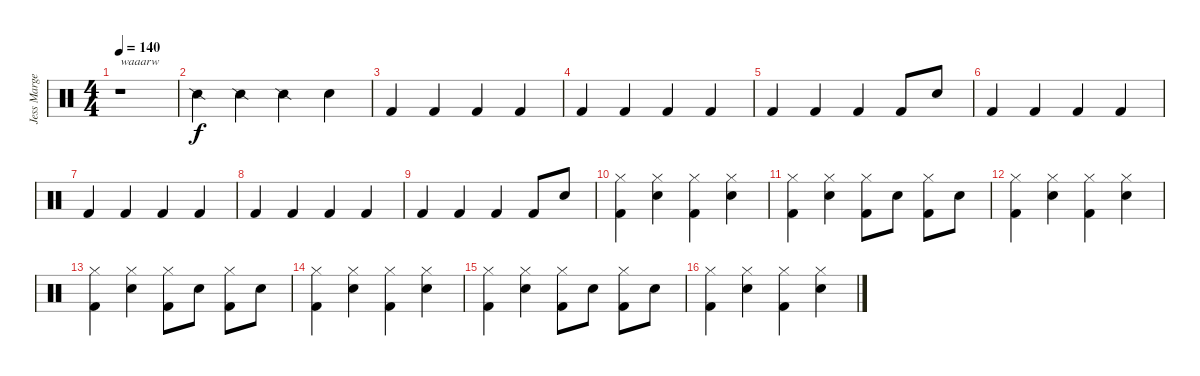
\track ("Jess Margera" "Jess Marge") {instrument percussion}
\staff {score}
\articulation defaults
\ts (4 4)
\tempo 140
\clef neutral
\ks c
r.1{txt "waaarw" dy f} |
"Snare (side stick) 2".4 "Snare (side stick) 2".4 "Snare (side stick) 2".4 "Electric Snare (hit)".4 |
"Kick (hit) 2".4 "Kick (hit) 2".4 "Kick (hit) 2".4 "Kick (hit) 2".4 |
"Kick (hit) 2".4 "Kick (hit) 2".4 "Kick (hit) 2".4 "Kick (hit) 2".4 |
"Kick (hit) 2".4 "Kick (hit) 2".4 "Kick (hit) 2".4 "Kick (hit) 2".8 "Electric Snare (hit)".8 |
"Kick (hit) 2".4 "Kick (hit) 2".4 "Kick (hit) 2".4 "Kick (hit) 2".4 |
"Kick (hit) 2".4 "Kick (hit) 2".4 "Kick (hit) 2".4 "Kick (hit) 2".4 |
"Kick (hit) 2".4 "Kick (hit) 2".4 "Kick (hit) 2".4 "Kick (hit) 2".4 |
"Kick (hit) 2".4 "Kick (hit) 2".4 "Kick (hit) 2".4 "Kick (hit) 2".8 "Electric Snare (hit)".8 |
("Hi-Hat (closed)" "Kick (hit) 2").4 ("Hi-Hat (closed)" "Electric Snare (hit)").4 ("Hi-Hat (closed)" "Kick (hit) 2").4 ("Hi-Hat (closed)" "Electric Snare (hit)").4 |
("Hi-Hat (closed)" "Kick (hit) 2").4 ("Hi-Hat (closed)" "Electric Snare (hit)").4 ("Hi-Hat (closed)" "Kick (hit) 2").8 "Electric Snare (hit)".8 ("Hi-Hat (closed)" "Kick (hit) 2").8 "Electric Snare (hit)".8 |
("Hi-Hat (closed)" "Kick (hit) 2").4 ("Hi-Hat (closed)" "Electric Snare (hit)").4 ("Hi-Hat (closed)" "Kick (hit) 2").4 ("Hi-Hat (closed)" "Electric Snare (hit)").4 |
("Hi-Hat (closed)" "Kick (hit) 2").4 ("Hi-Hat (closed)" "Electric Snare (hit)").4 ("Hi-Hat (closed)" "Kick (hit) 2").8 "Electric Snare (hit)".8 ("Hi-Hat (closed)" "Kick (hit) 2").8 "Electric Snare (hit)".8 |
("Hi-Hat (closed)" "Kick (hit) 2").4 ("Hi-Hat (closed)" "Electric Snare (hit)").4 ("Hi-Hat (closed)" "Kick (hit) 2").4 ("Hi-Hat (closed)" "Electric Snare (hit)").4 |
("Hi-Hat (closed)" "Kick (hit) 2").4 ("Hi-Hat (closed)" "Electric Snare (hit)").4 ("Hi-Hat (closed)" "Kick (hit) 2").8 "Electric Snare (hit)".8 ("Hi-Hat (closed)" "Kick (hit) 2").8 "Electric Snare (hit)".8 |
("Hi-Hat (closed)" "Kick (hit) 2").4 ("Hi-Hat (closed)" "Electric Snare (hit)").4 ("Hi-Hat (closed)" "Kick (hit) 2").4 ("Hi-Hat (closed)" "Electric Snare (hit)").4
